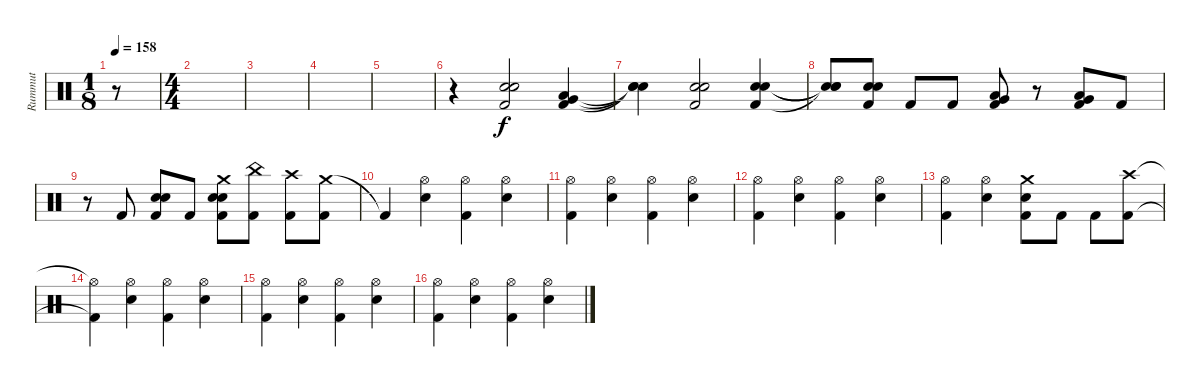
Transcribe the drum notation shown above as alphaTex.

\track ("Rummut" "Rummut") {instrument percussion}
\staff {score}
\articulation defaults
\ts (1 8)
\tempo 158
\clef neutral
\ks c
r.8{dy f} |
\ts (4 4)
|
|
|
|
r.4 ("Electric Snare (hit)" "Electric Snare (hit)" "Kick (hit) 2").2 ("Very Low Tom (hit)" "Low Tom (hit)" "Kick (hit) 2").4 |
("Snare (hit)"{t} "Snare (hit)"{t} "Snare (hit)"{t}).4 ("Electric Snare (hit)" "Electric Snare (hit)" "Kick (hit) 2").2 ("Electric Snare (hit)" "Electric Snare (hit)" "Kick (hit) 2").4 |
("Snare (hit)"{t} "Snare (hit)"{t} "Snare (hit)"{t}).8 ("Electric Snare (hit)" "Electric Snare (hit)" "Kick (hit) 2").8 "Kick (hit) 2".8 "Kick (hit) 2".8 ("Very Low Tom (hit)" "Low Tom (hit)" "Kick (hit) 2").8 r.8 ("Very Low Tom (hit)" "Low Tom (hit)" "Kick (hit) 2").8 "Kick (hit) 2".8 |
r.8 "Kick (hit) 2".8 ("Electric Snare (hit)" "Electric Snare (hit)" "Kick (hit) 2").8 "Kick (hit) 2".8 ("Crash medium (hit)" "Electric Snare (hit)" "Electric Snare (hit)" "Kick (hit) 2").8 ("China (hit)" "Kick (hit) 2").8 ("Crash high (hit)" "Kick (hit) 2").8 ("Crash medium (hit)" "Kick (hit) 2").8 |
"Kick (hit) 2"{t}.4 ("Hi-Hat (open)" "Electric Snare (hit)").4 ("Hi-Hat (open)" "Kick (hit) 2").4 ("Hi-Hat (open)" "Electric Snare (hit)").4 |
("Hi-Hat (open)" "Kick (hit) 2").4 ("Hi-Hat (open)" "Electric Snare (hit)").4 ("Hi-Hat (open)" "Kick (hit) 2").4 ("Hi-Hat (open)" "Electric Snare (hit)").4 |
("Hi-Hat (open)" "Kick (hit) 2").4 ("Hi-Hat (open)" "Electric Snare (hit)").4 ("Hi-Hat (open)" "Kick (hit) 2").4 ("Hi-Hat (open)" "Electric Snare (hit)").4 |
("Hi-Hat (open)" "Kick (hit) 2").4 ("Hi-Hat (open)" "Electric Snare (hit)").4 ("Crash medium (hit)" "Electric Snare (hit)" "Kick (hit) 2").8 "Kick (hit) 2".8 "Kick (hit) 2".8 ("Crash high (hit)" "Kick (hit) 2").8 |
("Hi-Hat (open)"{t} "Kick (hit) 2"{t}).4 ("Hi-Hat (open)" "Electric Snare (hit)").4 ("Hi-Hat (open)" "Kick (hit) 2").4 ("Hi-Hat (open)" "Electric Snare (hit)").4 |
("Hi-Hat (open)" "Kick (hit) 2").4 ("Hi-Hat (open)" "Electric Snare (hit)").4 ("Hi-Hat (open)" "Kick (hit) 2").4 ("Hi-Hat (open)" "Electric Snare (hit)").4 |
("Hi-Hat (open)" "Kick (hit) 2").4 ("Hi-Hat (open)" "Electric Snare (hit)").4 ("Hi-Hat (open)" "Kick (hit) 2").4 ("Hi-Hat (open)" "Electric Snare (hit)").4
